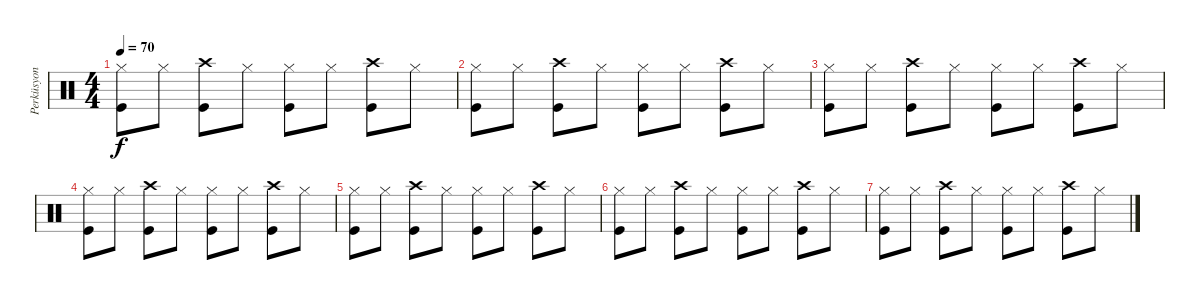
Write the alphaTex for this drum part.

\track ("Perküsyon" "Perküsyon") {instrument percussion}
\staff {score}
\articulation defaults
\ts (4 4)
\tempo 70
\clef neutral
\ks c
("Kick (hit)" "Hi-Hat (closed)").8{dy f} "Hi-Hat (closed)".8 ("Kick (hit)" "Crash high (hit)").8 "Hi-Hat (closed)".8 ("Kick (hit)" "Hi-Hat (closed)").8 "Hi-Hat (closed)".8 ("Kick (hit)" "Crash high (hit)").8 "Hi-Hat (closed)".8 |
("Kick (hit)" "Hi-Hat (closed)").8 "Hi-Hat (closed)".8 ("Kick (hit)" "Crash high (hit)").8 "Hi-Hat (closed)".8 ("Kick (hit)" "Hi-Hat (closed)").8 "Hi-Hat (closed)".8 ("Kick (hit)" "Crash high (hit)").8 "Hi-Hat (closed)".8 |
("Kick (hit)" "Hi-Hat (closed)").8 "Hi-Hat (closed)".8 ("Kick (hit)" "Crash high (hit)").8 "Hi-Hat (closed)".8 ("Kick (hit)" "Hi-Hat (closed)").8 "Hi-Hat (closed)".8 ("Kick (hit)" "Crash high (hit)").8 "Hi-Hat (closed)".8 |
("Kick (hit)" "Hi-Hat (closed)").8 "Hi-Hat (closed)".8 ("Kick (hit)" "Crash high (hit)").8 "Hi-Hat (closed)".8 ("Kick (hit)" "Hi-Hat (closed)").8 "Hi-Hat (closed)".8 ("Kick (hit)" "Crash high (hit)").8 "Hi-Hat (closed)".8 |
("Kick (hit)" "Hi-Hat (closed)").8 "Hi-Hat (closed)".8 ("Kick (hit)" "Crash high (hit)").8 "Hi-Hat (closed)".8 ("Kick (hit)" "Hi-Hat (closed)").8 "Hi-Hat (closed)".8 ("Kick (hit)" "Crash high (hit)").8 "Hi-Hat (closed)".8 |
("Kick (hit)" "Hi-Hat (closed)").8 "Hi-Hat (closed)".8 ("Kick (hit)" "Crash high (hit)").8 "Hi-Hat (closed)".8 ("Kick (hit)" "Hi-Hat (closed)").8 "Hi-Hat (closed)".8 ("Kick (hit)" "Crash high (hit)").8 "Hi-Hat (closed)".8 |
("Kick (hit)" "Hi-Hat (closed)").8 "Hi-Hat (closed)".8 ("Kick (hit)" "Crash high (hit)").8 "Hi-Hat (closed)".8 ("Kick (hit)" "Hi-Hat (closed)").8 "Hi-Hat (closed)".8 ("Kick (hit)" "Crash high (hit)").8 "Hi-Hat (closed)".8
